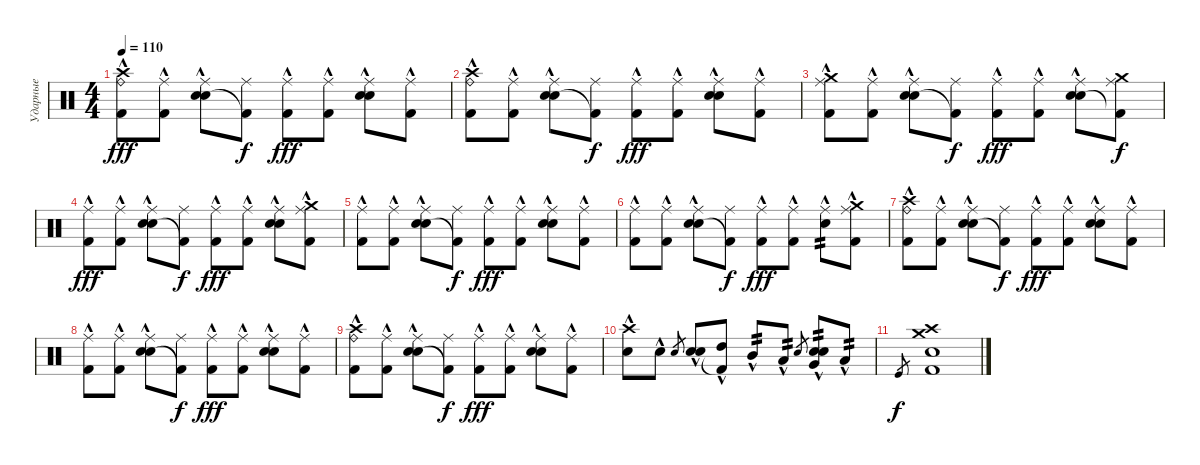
\track ("Ударные" "Ударные") {instrument percussion}
\staff {score}
\articulation defaults
\ts (4 4)
\tempo 110
\clef neutral
\ks c
("Kick (hit) 2"{hac} "Crash high (hit)" "Ride (bell)").8{dy fff} ("Kick (hit) 2"{hac} "Ride (middle)").8 ("Snare (hit) 2"{hac} "Electric Snare (hit)"{hac} "Ride (middle)").8 ("Kick (hit) 2"{t} "Ride (middle)").8{dy f} ("Kick (hit) 2"{hac} "Ride (middle)").8{dy fff} ("Kick (hit) 2"{hac} "Ride (middle)").8 ("Snare (hit) 2"{hac} "Electric Snare (hit)"{hac} "Ride (middle)").8 ("Kick (hit) 2"{hac} "Ride (middle)").8 |
("Kick (hit) 2"{hac} "Crash high (hit)" "Ride (bell)").8 ("Kick (hit) 2"{hac} "Ride (middle)").8 ("Snare (hit) 2"{hac} "Electric Snare (hit)"{hac} "Ride (middle)").8 ("Kick (hit) 2"{t} "Ride (middle)").8{dy f} ("Kick (hit) 2"{hac} "Ride (middle)").8{dy fff} ("Kick (hit) 2"{hac} "Ride (middle)").8 ("Snare (hit) 2"{hac} "Electric Snare (hit)"{hac} "Ride (middle)").8 ("Kick (hit) 2"{hac} "Ride (middle)").8 |
("Kick (hit) 2"{hac} "Crash medium (hit)" "Ride (middle)").8 ("Kick (hit) 2"{hac} "Ride (middle)").8 ("Snare (hit) 2"{hac} "Electric Snare (hit)"{hac} "Ride (middle)").8 ("Kick (hit) 2"{t} "Ride (middle)").8{dy f} ("Kick (hit) 2"{hac} "Ride (middle)").8{dy fff} ("Kick (hit) 2"{hac} "Ride (middle)").8 ("Snare (hit) 2"{hac} "Electric Snare (hit)"{hac} "Ride (middle)").8 ("Kick (hit) 2"{t} "Crash medium (hit)" "Ride (middle)").8{dy f} |
("Kick (hit) 2"{hac} "Ride (middle)").8{dy fff} ("Kick (hit) 2"{hac} "Ride (middle)").8 ("Snare (hit) 2"{hac} "Electric Snare (hit)"{hac} "Ride (middle)").8 ("Kick (hit) 2"{t} "Ride (middle)").8{dy f} ("Kick (hit) 2"{hac} "Ride (middle)").8{dy fff} ("Kick (hit) 2"{hac} "Ride (middle)").8 ("Snare (hit) 2"{hac} "Electric Snare (hit)"{hac} "Ride (middle)").8 ("Kick (hit) 2"{hac} "Crash medium (hit)" "Ride (middle)").8 |
("Kick (hit) 2"{hac} "Ride (middle)").8 ("Kick (hit) 2"{hac} "Ride (middle)").8 ("Snare (hit) 2"{hac} "Electric Snare (hit)"{hac} "Ride (middle)").8 ("Kick (hit) 2"{t} "Ride (middle)").8{dy f} ("Kick (hit) 2"{hac} "Ride (middle)").8{dy fff} ("Kick (hit) 2"{hac} "Ride (middle)").8 ("Snare (hit) 2"{hac} "Electric Snare (hit)"{hac} "Ride (middle)").8 ("Kick (hit) 2"{hac} "Ride (middle)").8 |
("Kick (hit) 2"{hac} "Ride (middle)").8 ("Kick (hit) 2"{hac} "Ride (middle)").8 ("Snare (hit) 2"{hac} "Electric Snare (hit)"{hac} "Ride (middle)").8 ("Kick (hit) 2"{t} "Ride (middle)").8{dy f} ("Kick (hit) 2"{hac} "Ride (middle)").8{dy fff} ("Kick (hit) 2"{hac} "Ride (middle)").8 ("Snare (hit) 2"{hac} "Ride (middle)").8{tp 2} ("Kick (hit) 2"{hac} "Crash medium (hit)" "Ride (middle)").8 |
("Kick (hit) 2"{hac} "Crash high (hit)" "Ride (bell)").8 ("Kick (hit) 2"{hac} "Ride (middle)").8 ("Snare (hit) 2"{hac} "Electric Snare (hit)"{hac} "Ride (middle)").8 ("Kick (hit) 2"{t} "Ride (middle)").8{dy f} ("Kick (hit) 2"{hac} "Ride (middle)").8{dy fff} ("Kick (hit) 2"{hac} "Ride (middle)").8 ("Snare (hit) 2"{hac} "Electric Snare (hit)"{hac} "Ride (middle)").8 ("Kick (hit) 2"{hac} "Ride (middle)").8 |
("Kick (hit) 2"{hac} "Ride (middle)").8 ("Kick (hit) 2"{hac} "Ride (middle)").8 ("Snare (hit) 2"{hac} "Electric Snare (hit)"{hac} "Ride (middle)").8 ("Kick (hit) 2"{t} "Ride (middle)").8{dy f} ("Kick (hit) 2"{hac} "Ride (middle)").8{dy fff} ("Kick (hit) 2"{hac} "Ride (middle)").8 ("Snare (hit) 2"{hac} "Electric Snare (hit)"{hac} "Ride (middle)").8 ("Kick (hit) 2"{hac} "Ride (middle)").8 |
("Kick (hit) 2"{hac} "Crash high (hit)" "Ride (bell)").8 ("Kick (hit) 2"{hac} "Ride (middle)").8 ("Snare (hit) 2"{hac} "Electric Snare (hit)"{hac} "Ride (middle)").8 ("Kick (hit) 2"{t} "Ride (middle)").8{dy f} ("Kick (hit) 2"{hac} "Ride (middle)").8{dy fff} ("Kick (hit) 2"{hac} "Ride (middle)").8 ("Snare (hit) 2"{hac} "Electric Snare (hit)"{hac} "Ride (middle)").8 ("Kick (hit) 2"{hac} "Ride (middle)").8 |
("Crash high (hit)"{hac} "Snare (hit) 2"{hac}).8 "Snare (hit) 2"{hac}.8 "Snare (hit) 2".8{gr} ("Electric Snare (hit)"{hac} "Snare (hit) 2"{hac}).8 ("Kick (hit) 2"{t} "High Tom (hit)"{hac}).8 "Mid Tom (hit)"{hac}.8{tp 2} "Low Tom (hit)"{hac}.8{tp 2} "Snare (hit) 2".8{gr} ("Snare (hit) 2"{hac} "Electric Snare (hit)"{hac} "Very Low Tom (hit)"{hac}).8{tp 2} "Low Floor Tom (hit)"{hac}.8{tp 2} |
"Kick (hit)".8{gr dy f} ("Kick (hit) 2" "Electric Snare (hit)" "Crash medium (hit)" "Crash high (hit)").1
